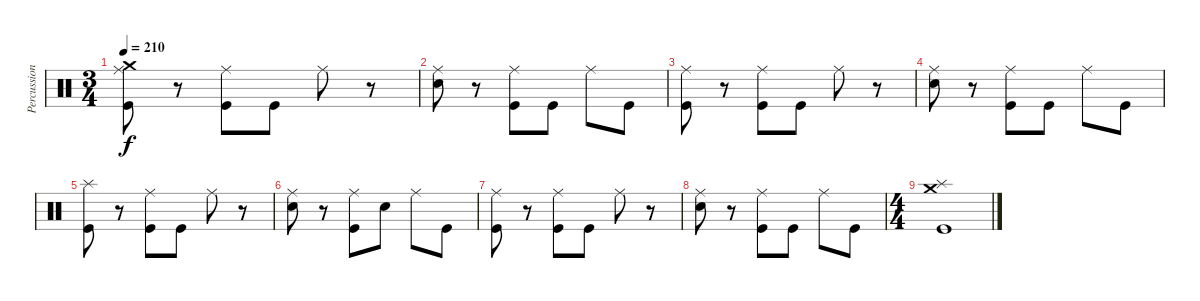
\track ("Percussion" "Percussion") {instrument percussion}
\staff {score}
\articulation defaults
\ts (3 4)
\tempo 210
\clef neutral
\ks c
("Crash medium (hit)" "Ride (middle)" "Kick (hit)").8{dy f} r.8 ("Ride (middle)" "Kick (hit)").8 "Kick (hit)".8 "Ride (middle)".8 r.8 |
("Ride (middle)" "Electric Snare (hit)").8 r.8 ("Ride (middle)" "Kick (hit)").8 "Kick (hit)".8 "Ride (middle)".8 "Kick (hit)".8 |
("Ride (middle)" "Kick (hit)").8 r.8 ("Ride (middle)" "Kick (hit)").8 "Kick (hit)".8 "Ride (middle)".8 r.8 |
("Ride (middle)" "Electric Snare (hit)").8 r.8 ("Ride (middle)" "Kick (hit)").8 "Kick (hit)".8 "Ride (middle)".8 "Kick (hit)".8 |
("Splash (hit)" "Kick (hit)").8 r.8 ("Ride (middle)" "Kick (hit)").8 "Kick (hit)".8 "Ride (middle)".8 r.8 |
("Ride (middle)" "Electric Snare (hit)").8 r.8 ("Ride (middle)" "Kick (hit)").8 "Electric Snare (hit)".8 "Ride (middle)".8 "Kick (hit)".8 |
("Ride (middle)" "Kick (hit)").8 r.8 ("Ride (middle)" "Kick (hit)").8 "Kick (hit)".8 "Ride (middle)".8 r.8 |
("Ride (middle)" "Electric Snare (hit)").8 r.8 ("Ride (middle)" "Kick (hit)").8 "Kick (hit)".8 "Ride (middle)".8 "Kick (hit)".8 |
\ts (4 4)
("Splash (hit)" "Crash medium (hit)" "Kick (hit)").1
